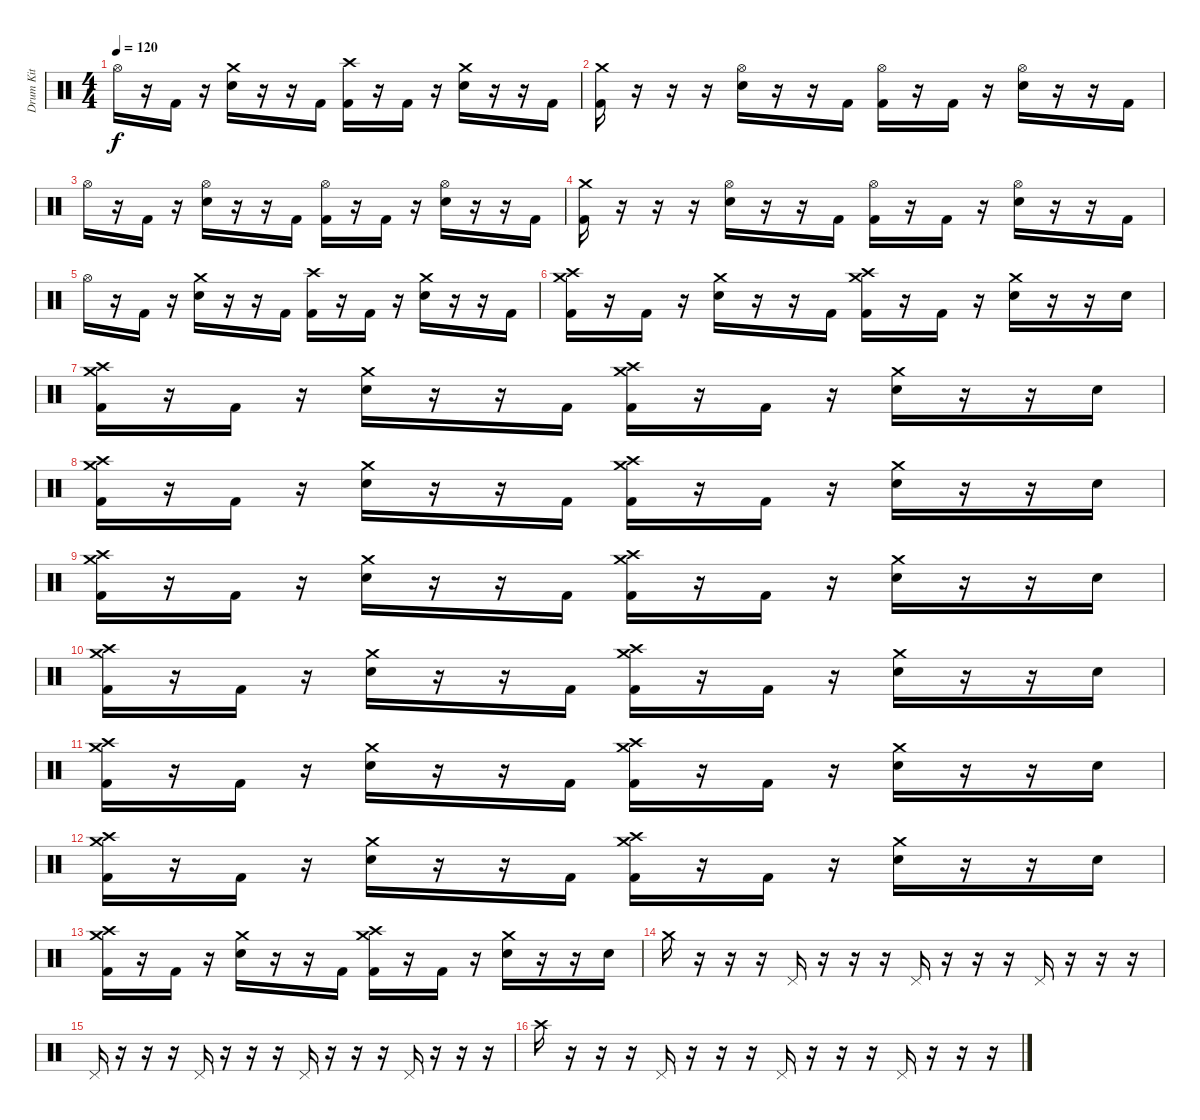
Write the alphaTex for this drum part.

\track ("Drum Kit" "Drum Kit") {instrument percussion}
\staff {score}
\articulation defaults
\ts (4 4)
\tempo 120
\clef neutral
\ks c "Hi-Hat (open)".16{dy f}
r.16 "Kick (hit) 2".16 r.16 ("Crash medium (hit)" "Snare (hit) 2").16 r.16 r.16 "Kick (hit) 2".16 ("Crash high (hit)" "Kick (hit) 2").16 r.16 "Kick (hit) 2".16 r.16 ("Crash medium (hit)" "Snare (hit) 2").16 r.16 r.16 "Kick (hit) 2".16 |
("Crash medium (hit)" "Kick (hit) 2").16 r.16 r.16 r.16 ("Hi-Hat (open)" "Snare (hit) 2").16 r.16 r.16 "Kick (hit) 2".16 ("Hi-Hat (open)" "Kick (hit) 2").16 r.16 "Kick (hit) 2".16 r.16 ("Hi-Hat (open)" "Snare (hit) 2").16 r.16 r.16 "Kick (hit) 2".16 |
"Hi-Hat (open)".16 r.16 "Kick (hit) 2".16 r.16 ("Hi-Hat (open)" "Snare (hit) 2").16 r.16 r.16 "Kick (hit) 2".16 ("Hi-Hat (open)" "Kick (hit) 2").16 r.16 "Kick (hit) 2".16 r.16 ("Hi-Hat (open)" "Snare (hit) 2").16 r.16 r.16 "Kick (hit) 2".16 |
("Crash medium (hit)" "Kick (hit) 2").16 r.16 r.16 r.16 ("Hi-Hat (open)" "Snare (hit) 2").16 r.16 r.16 "Kick (hit) 2".16 ("Hi-Hat (open)" "Kick (hit) 2").16 r.16 "Kick (hit) 2".16 r.16 ("Hi-Hat (open)" "Snare (hit) 2").16 r.16 r.16 "Kick (hit) 2".16 |
"Hi-Hat (open)".16 r.16 "Kick (hit) 2".16 r.16 ("Crash medium (hit)" "Snare (hit) 2").16 r.16 r.16 "Kick (hit) 2".16 ("Crash high (hit)" "Kick (hit) 2").16 r.16 "Kick (hit) 2".16 r.16 ("Crash medium (hit)" "Snare (hit) 2").16 r.16 r.16 "Kick (hit) 2".16 |
("Crash medium (hit)" "Crash high (hit)" "Kick (hit) 2").16 r.16 "Kick (hit) 2".16 r.16 ("Crash medium (hit)" "Snare (hit) 2").16 r.16 r.16 "Kick (hit) 2".16 ("Crash medium (hit)" "Crash high (hit)" "Kick (hit) 2").16 r.16 "Kick (hit) 2".16 r.16 ("Crash medium (hit)" "Snare (hit) 2").16 r.16 r.16 "Snare (hit) 2".16 |
("Crash medium (hit)" "Crash high (hit)" "Kick (hit) 2").16 r.16 "Kick (hit) 2".16 r.16 ("Crash medium (hit)" "Snare (hit) 2").16 r.16 r.16 "Kick (hit) 2".16 ("Crash medium (hit)" "Crash high (hit)" "Kick (hit) 2").16 r.16 "Kick (hit) 2".16 r.16 ("Crash medium (hit)" "Snare (hit) 2").16 r.16 r.16 "Snare (hit) 2".16 |
("Crash medium (hit)" "Crash high (hit)" "Kick (hit) 2").16 r.16 "Kick (hit) 2".16 r.16 ("Crash medium (hit)" "Snare (hit) 2").16 r.16 r.16 "Kick (hit) 2".16 ("Crash medium (hit)" "Crash high (hit)" "Kick (hit) 2").16 r.16 "Kick (hit) 2".16 r.16 ("Crash medium (hit)" "Snare (hit) 2").16 r.16 r.16 "Snare (hit) 2".16 |
("Crash medium (hit)" "Crash high (hit)" "Kick (hit) 2").16 r.16 "Kick (hit) 2".16 r.16 ("Crash medium (hit)" "Snare (hit) 2").16 r.16 r.16 "Kick (hit) 2".16 ("Crash medium (hit)" "Crash high (hit)" "Kick (hit) 2").16 r.16 "Kick (hit) 2".16 r.16 ("Crash medium (hit)" "Snare (hit) 2").16 r.16 r.16 "Snare (hit) 2".16 |
("Crash medium (hit)" "Crash high (hit)" "Kick (hit) 2").16 r.16 "Kick (hit) 2".16 r.16 ("Crash medium (hit)" "Snare (hit) 2").16 r.16 r.16 "Kick (hit) 2".16 ("Crash medium (hit)" "Crash high (hit)" "Kick (hit) 2").16 r.16 "Kick (hit) 2".16 r.16 ("Crash medium (hit)" "Snare (hit) 2").16 r.16 r.16 "Snare (hit) 2".16 |
("Crash medium (hit)" "Crash high (hit)" "Kick (hit) 2").16 r.16 "Kick (hit) 2".16 r.16 ("Crash medium (hit)" "Snare (hit) 2").16 r.16 r.16 "Kick (hit) 2".16 ("Crash medium (hit)" "Crash high (hit)" "Kick (hit) 2").16 r.16 "Kick (hit) 2".16 r.16 ("Crash medium (hit)" "Snare (hit) 2").16 r.16 r.16 "Snare (hit) 2".16 |
("Crash medium (hit)" "Crash high (hit)" "Kick (hit) 2").16 r.16 "Kick (hit) 2".16 r.16 ("Crash medium (hit)" "Snare (hit) 2").16 r.16 r.16 "Kick (hit) 2".16 ("Crash medium (hit)" "Crash high (hit)" "Kick (hit) 2").16 r.16 "Kick (hit) 2".16 r.16 ("Crash medium (hit)" "Snare (hit) 2").16 r.16 r.16 "Snare (hit) 2".16 |
("Crash medium (hit)" "Crash high (hit)" "Kick (hit) 2").16 r.16 "Kick (hit) 2".16 r.16 ("Crash medium (hit)" "Snare (hit) 2").16 r.16 r.16 "Kick (hit) 2".16 ("Crash medium (hit)" "Crash high (hit)" "Kick (hit) 2").16 r.16 "Kick (hit) 2".16 r.16 ("Crash medium (hit)" "Snare (hit) 2").16 r.16 r.16 "Snare (hit) 2".16 |
"Crash medium (hit)".16 r.16 r.16 r.16 "Pedal Hi-Hat (hit)".16 r.16 r.16 r.16 "Pedal Hi-Hat (hit)".16 r.16 r.16 r.16 "Pedal Hi-Hat (hit)".16 r.16 r.16 r.16 |
"Pedal Hi-Hat (hit)".16 r.16 r.16 r.16 "Pedal Hi-Hat (hit)".16 r.16 r.16 r.16 "Pedal Hi-Hat (hit)".16 r.16 r.16 r.16 "Pedal Hi-Hat (hit)".16 r.16 r.16 r.16 |
"Crash high (hit)".16 r.16 r.16 r.16 "Pedal Hi-Hat (hit)".16 r.16 r.16 r.16 "Pedal Hi-Hat (hit)".16 r.16 r.16 r.16 "Pedal Hi-Hat (hit)".16 r.16 r.16 r.16
